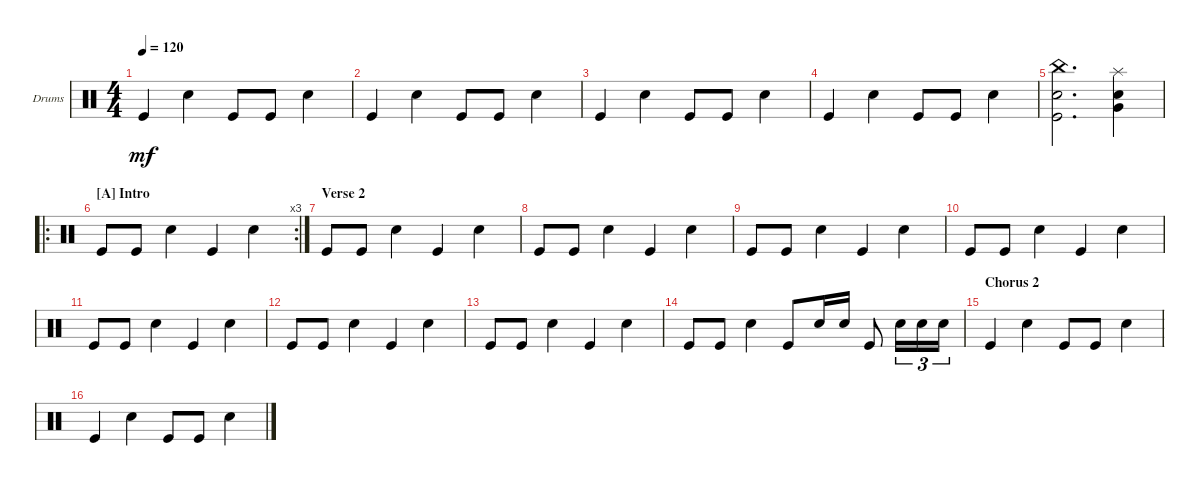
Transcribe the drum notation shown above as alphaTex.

\bracketExtendMode groupsimilarinstruments
\firstSystemTrackNameOrientation horizontal
\otherSystemsTrackNameOrientation horizontal
\track ("Drumkit" "Drums") {instrument percussion}
\staff {score}
\articulation defaults
\ts (4 4)
\tempo 120
\clef neutral
\ks c "Kick (hit)".4{dy mf} "Snare (hit) 2".4 "Kick (hit)".8 "Kick (hit)".8 "Snare (hit) 2".4
|
"Kick (hit)".4 "Snare (hit) 2".4 "Kick (hit)".8 "Kick (hit)".8 "Snare (hit) 2".4 |
"Kick (hit)".4 "Snare (hit) 2".4 "Kick (hit)".8 "Kick (hit)".8 "Snare (hit) 2".4 |
"Kick (hit)".4 "Snare (hit) 2".4 "Kick (hit)".8 "Kick (hit)".8 "Snare (hit) 2".4 |
("Kick (hit)" "Snare (hit) 2" "China (hit)").2{d} ("Very Low Tom (hit)" "Snare (hit) 2" "Splash (hit)").4 |
\ro
\rc 3
\section ("A" "Intro")
"Kick (hit)".8 "Kick (hit)".8 "Snare (hit) 2".4 "Kick (hit)".4 "Snare (hit) 2".4 |
\section ("" "Verse 2")
"Kick (hit)".8 "Kick (hit)".8 "Snare (hit) 2".4 "Kick (hit)".4 "Snare (hit) 2".4 |
"Kick (hit)".8 "Kick (hit)".8 "Snare (hit) 2".4 "Kick (hit)".4 "Snare (hit) 2".4 |
"Kick (hit)".8 "Kick (hit)".8 "Snare (hit) 2".4 "Kick (hit)".4 "Snare (hit) 2".4 |
"Kick (hit)".8 "Kick (hit)".8 "Snare (hit) 2".4 "Kick (hit)".4 "Snare (hit) 2".4 |
"Kick (hit)".8 "Kick (hit)".8 "Snare (hit) 2".4 "Kick (hit)".4 "Snare (hit) 2".4 |
"Kick (hit)".8 "Kick (hit)".8 "Snare (hit) 2".4 "Kick (hit)".4 "Snare (hit) 2".4 |
"Kick (hit)".8 "Kick (hit)".8 "Snare (hit) 2".4 "Kick (hit)".4 "Snare (hit) 2".4 |
"Kick (hit)".8 "Kick (hit)".8 "Snare (hit) 2".4 "Kick (hit)".8 "Snare (hit) 2".16 "Snare (hit) 2".16 "Kick (hit)".8 "Snare (hit) 2".16{tu (3 2)} "Snare (hit) 2".16{tu (3 2)} "Snare (hit) 2".16{tu (3 2)} |
\section ("" "Chorus 2")
"Kick (hit)".4 "Snare (hit) 2".4 "Kick (hit)".8 "Kick (hit)".8 "Snare (hit) 2".4 |
"Kick (hit)".4 "Snare (hit) 2".4 "Kick (hit)".8 "Kick (hit)".8 "Snare (hit) 2".4
